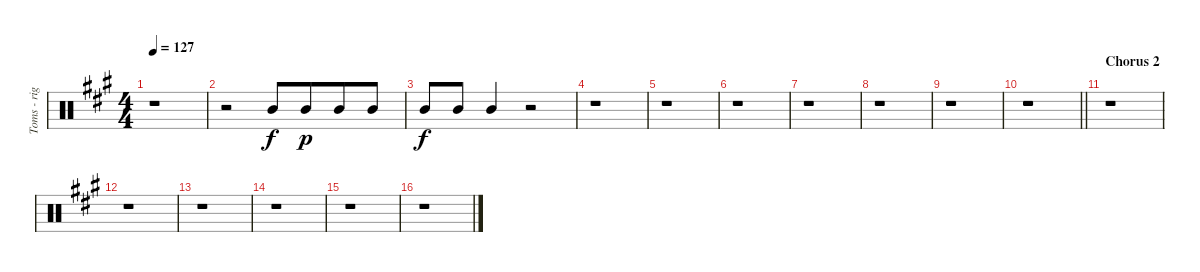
\track ("Toms - right" "Toms - rig") {instrument percussion}
\staff {score}
\articulation defaults
\ts (4 4)
\tempo 127
\clef neutral
\ks a
r.1{dy f} |
r.2{volume 9} "Mid Tom (hit)".8{volume 13 beam Up} "Mid Tom (hit)".8{dy p beam Up beam merge} "Mid Tom (hit)".8{beam Up} "Mid Tom (hit)".8{beam Up} |
"Mid Tom (hit)".8{dy f beam Up} "Mid Tom (hit)".8{beam Up} "Mid Tom (hit)".4{beam Up} r.2 |
r.1 |
r.1 |
r.1 |
r.1 |
r.1 |
r.1 |
\barLineRight lightlight
r.1 |
\section ("" "Chorus 2")
r.1 |
r.1 |
r.1 |
r.1 |
r.1 |
r.1
